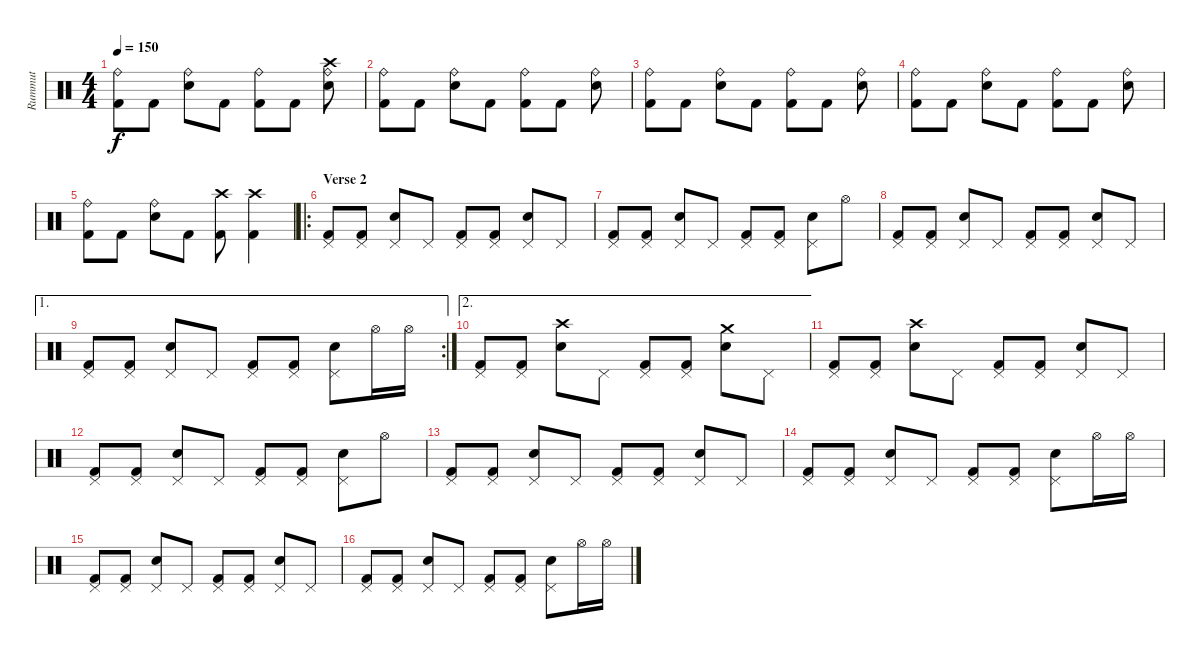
\track ("Rummut" "Rummut") {instrument percussion}
\staff {score}
\articulation defaults
\ts (4 4)
\tempo 150
\clef neutral
\ks c
("Ride (bell)" "Kick (hit) 2").8{dy f} "Kick (hit) 2".8 ("Ride (bell)" "Snare (hit) 2").8 "Kick (hit) 2".8 ("Ride (bell)" "Kick (hit) 2").8 "Kick (hit) 2".8 ("Crash high (hit)" "Ride (bell)" "Snare (hit) 2").8 |
("Ride (bell)" "Kick (hit) 2").8 "Kick (hit) 2".8 ("Ride (bell)" "Snare (hit) 2").8 "Kick (hit) 2".8 ("Ride (bell)" "Kick (hit) 2").8 "Kick (hit) 2".8 ("Ride (bell)" "Snare (hit) 2").8 |
("Ride (bell)" "Kick (hit) 2").8 "Kick (hit) 2".8 ("Ride (bell)" "Snare (hit) 2").8 "Kick (hit) 2".8 ("Ride (bell)" "Kick (hit) 2").8 "Kick (hit) 2".8 ("Ride (bell)" "Snare (hit) 2").8 |
("Ride (bell)" "Kick (hit) 2").8 "Kick (hit) 2".8 ("Ride (bell)" "Snare (hit) 2").8 "Kick (hit) 2".8 ("Ride (bell)" "Kick (hit) 2").8 "Kick (hit) 2".8 ("Ride (bell)" "Snare (hit) 2").8 |
("Ride (bell)" "Kick (hit) 2").8 "Kick (hit) 2".8 ("Ride (bell)" "Snare (hit) 2").8 "Kick (hit) 2".8 ("Crash high (hit)" "Kick (hit) 2").8 ("Crash high (hit)" "Kick (hit) 2").4 |
\ro
\section ("" "Verse 2")
("Pedal Hi-Hat (hit)" "Kick (hit) 2").8 ("Pedal Hi-Hat (hit)" "Kick (hit) 2").8 ("Pedal Hi-Hat (hit)" "Snare (hit) 2").8 "Pedal Hi-Hat (hit)".8 ("Pedal Hi-Hat (hit)" "Kick (hit) 2").8 ("Pedal Hi-Hat (hit)" "Kick (hit) 2").8 ("Pedal Hi-Hat (hit)" "Snare (hit) 2").8 "Pedal Hi-Hat (hit)".8 |
("Pedal Hi-Hat (hit)" "Kick (hit) 2").8 ("Pedal Hi-Hat (hit)" "Kick (hit) 2").8 ("Pedal Hi-Hat (hit)" "Snare (hit) 2").8 "Pedal Hi-Hat (hit)".8 ("Pedal Hi-Hat (hit)" "Kick (hit) 2").8 ("Pedal Hi-Hat (hit)" "Kick (hit) 2").8 ("Pedal Hi-Hat (hit)" "Snare (hit) 2").8 "Hi-Hat (open)".8 |
("Pedal Hi-Hat (hit)" "Kick (hit) 2").8 ("Pedal Hi-Hat (hit)" "Kick (hit) 2").8 ("Pedal Hi-Hat (hit)" "Snare (hit) 2").8 "Pedal Hi-Hat (hit)".8 ("Pedal Hi-Hat (hit)" "Kick (hit) 2").8 ("Pedal Hi-Hat (hit)" "Kick (hit) 2").8 ("Pedal Hi-Hat (hit)" "Snare (hit) 2").8 "Pedal Hi-Hat (hit)".8 |
\ae 1
\rc 2
("Pedal Hi-Hat (hit)" "Kick (hit) 2").8 ("Pedal Hi-Hat (hit)" "Kick (hit) 2").8 ("Pedal Hi-Hat (hit)" "Snare (hit) 2").8 "Pedal Hi-Hat (hit)".8 ("Pedal Hi-Hat (hit)" "Kick (hit) 2").8 ("Pedal Hi-Hat (hit)" "Kick (hit) 2").8 ("Pedal Hi-Hat (hit)" "Snare (hit) 2").8 "Hi-Hat (open)".16 "Hi-Hat (open)".16 |
\ae 2
("Pedal Hi-Hat (hit)" "Kick (hit) 2").8 ("Pedal Hi-Hat (hit)" "Kick (hit) 2").8 ("Crash high (hit)" "Snare (hit) 2").8 "Pedal Hi-Hat (hit)".8 ("Pedal Hi-Hat (hit)" "Kick (hit) 2").8 ("Pedal Hi-Hat (hit)" "Kick (hit) 2").8 ("Crash medium (hit)" "Snare (hit) 2").8 "Pedal Hi-Hat (hit)".8 |
("Pedal Hi-Hat (hit)" "Kick (hit) 2").8 ("Pedal Hi-Hat (hit)" "Kick (hit) 2").8 ("Crash high (hit)" "Snare (hit) 2").8 "Pedal Hi-Hat (hit)".8 ("Pedal Hi-Hat (hit)" "Kick (hit) 2").8 ("Pedal Hi-Hat (hit)" "Kick (hit) 2").8 ("Pedal Hi-Hat (hit)" "Snare (hit) 2").8 "Pedal Hi-Hat (hit)".8 |
("Pedal Hi-Hat (hit)" "Kick (hit) 2").8 ("Pedal Hi-Hat (hit)" "Kick (hit) 2").8 ("Pedal Hi-Hat (hit)" "Snare (hit) 2").8 "Pedal Hi-Hat (hit)".8 ("Pedal Hi-Hat (hit)" "Kick (hit) 2").8 ("Pedal Hi-Hat (hit)" "Kick (hit) 2").8 ("Pedal Hi-Hat (hit)" "Snare (hit) 2").8 "Hi-Hat (open)".8 |
("Pedal Hi-Hat (hit)" "Kick (hit) 2").8 ("Pedal Hi-Hat (hit)" "Kick (hit) 2").8 ("Pedal Hi-Hat (hit)" "Snare (hit) 2").8 "Pedal Hi-Hat (hit)".8 ("Pedal Hi-Hat (hit)" "Kick (hit) 2").8 ("Pedal Hi-Hat (hit)" "Kick (hit) 2").8 ("Pedal Hi-Hat (hit)" "Snare (hit) 2").8 "Pedal Hi-Hat (hit)".8 |
("Pedal Hi-Hat (hit)" "Kick (hit) 2").8 ("Pedal Hi-Hat (hit)" "Kick (hit) 2").8 ("Pedal Hi-Hat (hit)" "Snare (hit) 2").8 "Pedal Hi-Hat (hit)".8 ("Pedal Hi-Hat (hit)" "Kick (hit) 2").8 ("Pedal Hi-Hat (hit)" "Kick (hit) 2").8 ("Pedal Hi-Hat (hit)" "Snare (hit) 2").8 "Hi-Hat (open)".16 "Hi-Hat (open)".16 |
("Pedal Hi-Hat (hit)" "Kick (hit) 2").8 ("Pedal Hi-Hat (hit)" "Kick (hit) 2").8 ("Pedal Hi-Hat (hit)" "Snare (hit) 2").8 "Pedal Hi-Hat (hit)".8 ("Pedal Hi-Hat (hit)" "Kick (hit) 2").8 ("Pedal Hi-Hat (hit)" "Kick (hit) 2").8 ("Pedal Hi-Hat (hit)" "Snare (hit) 2").8 "Pedal Hi-Hat (hit)".8 |
("Pedal Hi-Hat (hit)" "Kick (hit) 2").8 ("Pedal Hi-Hat (hit)" "Kick (hit) 2").8 ("Pedal Hi-Hat (hit)" "Snare (hit) 2").8 "Pedal Hi-Hat (hit)".8 ("Pedal Hi-Hat (hit)" "Kick (hit) 2").8 ("Pedal Hi-Hat (hit)" "Kick (hit) 2").8 ("Pedal Hi-Hat (hit)" "Snare (hit) 2").8 "Hi-Hat (open)".16 "Hi-Hat (open)".16
